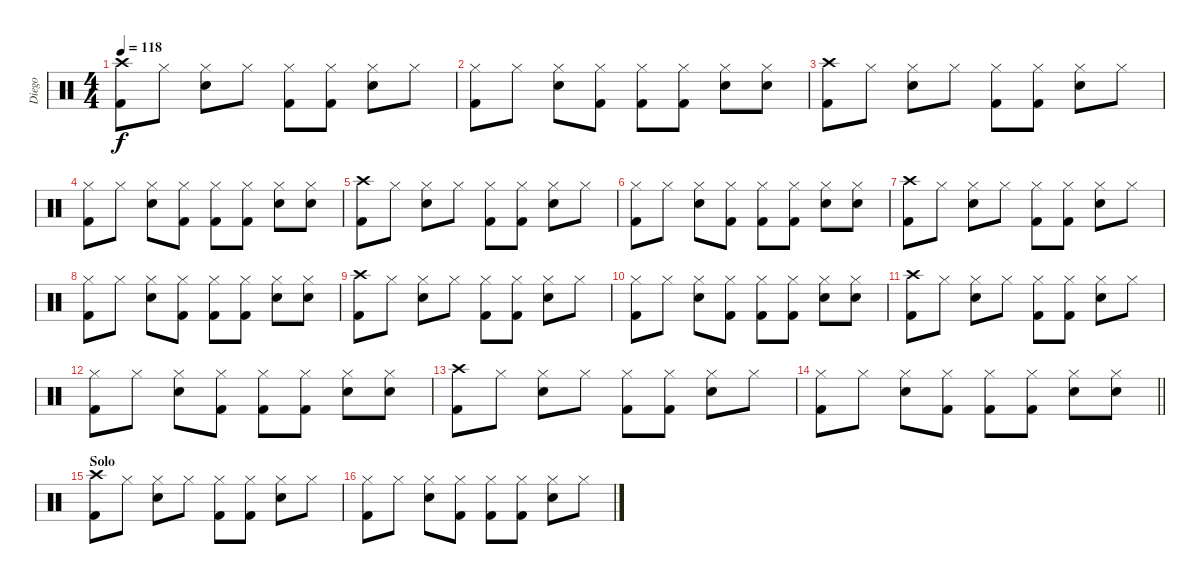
\track ("Diego" "Diego") {instrument percussion}
\staff {score}
\articulation defaults
\ts (4 4)
\tempo 118
\clef neutral
\ks c
("Crash high (hit)" "Kick (hit) 2").8{dy f} "Hi-Hat (closed)".8 ("Hi-Hat (closed)" "Snare (hit) 2").8 "Hi-Hat (closed)".8 ("Hi-Hat (closed)" "Kick (hit) 2").8 ("Hi-Hat (closed)" "Kick (hit) 2").8 ("Hi-Hat (closed)" "Snare (hit) 2").8 "Hi-Hat (closed)".8 |
("Hi-Hat (closed)" "Kick (hit) 2").8 "Hi-Hat (closed)".8 ("Hi-Hat (closed)" "Snare (hit) 2").8 ("Hi-Hat (closed)" "Kick (hit) 2").8 ("Hi-Hat (closed)" "Kick (hit) 2").8 ("Hi-Hat (closed)" "Kick (hit) 2").8 ("Hi-Hat (closed)" "Snare (hit) 2").8 ("Hi-Hat (closed)" "Snare (hit) 2").8 |
("Crash high (hit)" "Kick (hit) 2").8 "Hi-Hat (closed)".8 ("Hi-Hat (closed)" "Snare (hit) 2").8 "Hi-Hat (closed)".8 ("Hi-Hat (closed)" "Kick (hit) 2").8 ("Hi-Hat (closed)" "Kick (hit) 2").8 ("Hi-Hat (closed)" "Snare (hit) 2").8 "Hi-Hat (closed)".8 |
("Hi-Hat (closed)" "Kick (hit) 2").8 "Hi-Hat (closed)".8 ("Hi-Hat (closed)" "Snare (hit) 2").8 ("Hi-Hat (closed)" "Kick (hit) 2").8 ("Hi-Hat (closed)" "Kick (hit) 2").8 ("Hi-Hat (closed)" "Kick (hit) 2").8 ("Hi-Hat (closed)" "Snare (hit) 2").8 ("Hi-Hat (closed)" "Snare (hit) 2").8 |
("Crash high (hit)" "Kick (hit) 2").8 "Hi-Hat (closed)".8 ("Hi-Hat (closed)" "Snare (hit) 2").8 "Hi-Hat (closed)".8 ("Hi-Hat (closed)" "Kick (hit) 2").8 ("Hi-Hat (closed)" "Kick (hit) 2").8 ("Hi-Hat (closed)" "Snare (hit) 2").8 "Hi-Hat (closed)".8 |
("Hi-Hat (closed)" "Kick (hit) 2").8 "Hi-Hat (closed)".8 ("Hi-Hat (closed)" "Snare (hit) 2").8 ("Hi-Hat (closed)" "Kick (hit) 2").8 ("Hi-Hat (closed)" "Kick (hit) 2").8 ("Hi-Hat (closed)" "Kick (hit) 2").8 ("Hi-Hat (closed)" "Snare (hit) 2").8 ("Hi-Hat (closed)" "Snare (hit) 2").8 |
("Crash high (hit)" "Kick (hit) 2").8 "Hi-Hat (closed)".8 ("Hi-Hat (closed)" "Snare (hit) 2").8 "Hi-Hat (closed)".8 ("Hi-Hat (closed)" "Kick (hit) 2").8 ("Hi-Hat (closed)" "Kick (hit) 2").8 ("Hi-Hat (closed)" "Snare (hit) 2").8 "Hi-Hat (closed)".8 |
("Hi-Hat (closed)" "Kick (hit) 2").8 "Hi-Hat (closed)".8 ("Hi-Hat (closed)" "Snare (hit) 2").8 ("Hi-Hat (closed)" "Kick (hit) 2").8 ("Hi-Hat (closed)" "Kick (hit) 2").8 ("Hi-Hat (closed)" "Kick (hit) 2").8 ("Hi-Hat (closed)" "Snare (hit) 2").8 ("Hi-Hat (closed)" "Snare (hit) 2").8 |
("Crash high (hit)" "Kick (hit) 2").8 "Hi-Hat (closed)".8 ("Hi-Hat (closed)" "Snare (hit) 2").8 "Hi-Hat (closed)".8 ("Hi-Hat (closed)" "Kick (hit) 2").8 ("Hi-Hat (closed)" "Kick (hit) 2").8 ("Hi-Hat (closed)" "Snare (hit) 2").8 "Hi-Hat (closed)".8 |
("Hi-Hat (closed)" "Kick (hit) 2").8 "Hi-Hat (closed)".8 ("Hi-Hat (closed)" "Snare (hit) 2").8 ("Hi-Hat (closed)" "Kick (hit) 2").8 ("Hi-Hat (closed)" "Kick (hit) 2").8 ("Hi-Hat (closed)" "Kick (hit) 2").8 ("Hi-Hat (closed)" "Snare (hit) 2").8 ("Hi-Hat (closed)" "Snare (hit) 2").8 |
("Crash high (hit)" "Kick (hit) 2").8 "Hi-Hat (closed)".8 ("Hi-Hat (closed)" "Snare (hit) 2").8 "Hi-Hat (closed)".8 ("Hi-Hat (closed)" "Kick (hit) 2").8 ("Hi-Hat (closed)" "Kick (hit) 2").8 ("Hi-Hat (closed)" "Snare (hit) 2").8 "Hi-Hat (closed)".8 |
("Hi-Hat (closed)" "Kick (hit) 2").8 "Hi-Hat (closed)".8 ("Hi-Hat (closed)" "Snare (hit) 2").8 ("Hi-Hat (closed)" "Kick (hit) 2").8 ("Hi-Hat (closed)" "Kick (hit) 2").8 ("Hi-Hat (closed)" "Kick (hit) 2").8 ("Hi-Hat (closed)" "Snare (hit) 2").8 ("Hi-Hat (closed)" "Snare (hit) 2").8 |
("Crash high (hit)" "Kick (hit) 2").8 "Hi-Hat (closed)".8 ("Hi-Hat (closed)" "Snare (hit) 2").8 "Hi-Hat (closed)".8 ("Hi-Hat (closed)" "Kick (hit) 2").8 ("Hi-Hat (closed)" "Kick (hit) 2").8 ("Hi-Hat (closed)" "Snare (hit) 2").8 "Hi-Hat (closed)".8 |
\barLineRight lightlight
("Hi-Hat (closed)" "Kick (hit) 2").8 "Hi-Hat (closed)".8 ("Hi-Hat (closed)" "Snare (hit) 2").8 ("Hi-Hat (closed)" "Kick (hit) 2").8 ("Hi-Hat (closed)" "Kick (hit) 2").8 ("Hi-Hat (closed)" "Kick (hit) 2").8 ("Hi-Hat (closed)" "Snare (hit) 2").8 ("Hi-Hat (closed)" "Snare (hit) 2").8 |
\section ("" "Solo")
("Crash high (hit)" "Kick (hit) 2").8 "Hi-Hat (closed)".8 ("Hi-Hat (closed)" "Snare (hit) 2").8 "Hi-Hat (closed)".8 ("Hi-Hat (closed)" "Kick (hit) 2").8 ("Hi-Hat (closed)" "Kick (hit) 2").8 ("Hi-Hat (closed)" "Snare (hit) 2").8 "Hi-Hat (closed)".8 |
("Hi-Hat (closed)" "Kick (hit) 2").8 "Hi-Hat (closed)".8 ("Hi-Hat (closed)" "Snare (hit) 2").8 ("Hi-Hat (closed)" "Kick (hit) 2").8 ("Hi-Hat (closed)" "Kick (hit) 2").8 ("Hi-Hat (closed)" "Kick (hit) 2").8 ("Hi-Hat (closed)" "Snare (hit) 2").8 "Hi-Hat (closed)".8
